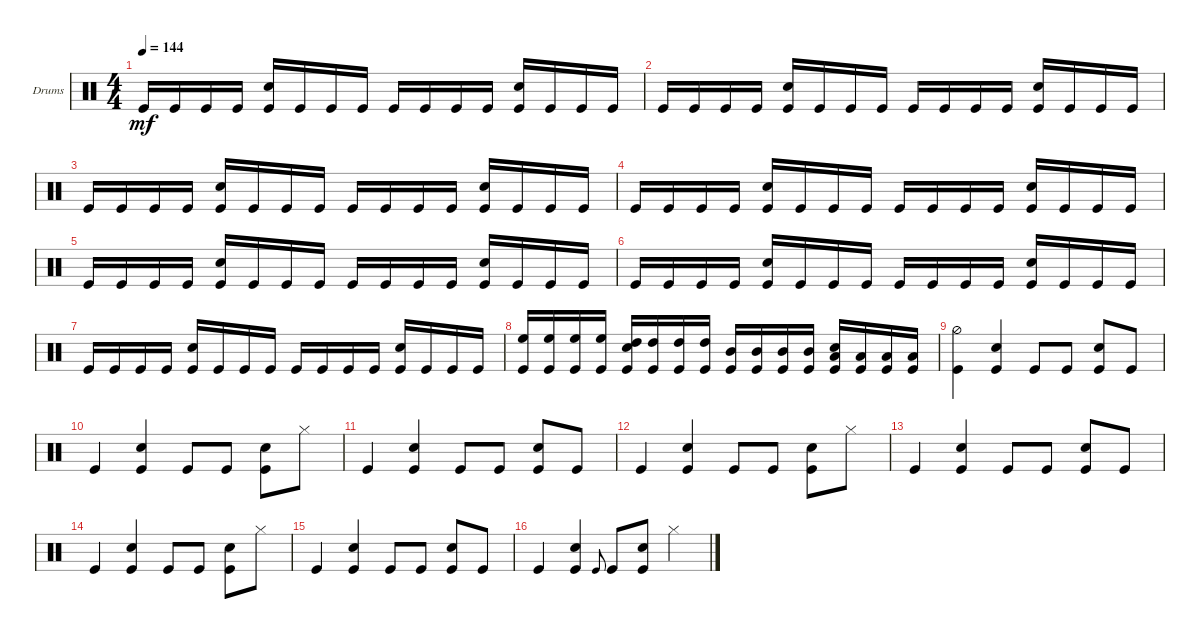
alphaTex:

\bracketExtendMode groupsimilarinstruments
\firstSystemTrackNameOrientation horizontal
\otherSystemsTrackNameOrientation horizontal
\track ("Drums" "Drums") {instrument percussion}
\staff {score}
\articulation defaults
\ts (4 4)
\tempo 144
\clef neutral
\ks c "Kick (hit)".16{dy mf} "Kick (hit)".16 "Kick (hit)".16 "Kick (hit)".16
("Kick (hit)" "Snare (hit) 2").16 "Kick (hit)".16 "Kick (hit)".16 "Kick (hit)".16 "Kick (hit)".16 "Kick (hit)".16 "Kick (hit)".16 "Kick (hit)".16 ("Kick (hit)" "Snare (hit) 2").16 "Kick (hit)".16 "Kick (hit)".16 "Kick (hit)".16 |
"Kick (hit)".16 "Kick (hit)".16 "Kick (hit)".16 "Kick (hit)".16 ("Kick (hit)" "Snare (hit) 2").16 "Kick (hit)".16 "Kick (hit)".16 "Kick (hit)".16 "Kick (hit)".16 "Kick (hit)".16 "Kick (hit)".16 "Kick (hit)".16 ("Kick (hit)" "Snare (hit) 2").16 "Kick (hit)".16 "Kick (hit)".16 "Kick (hit)".16 |
"Kick (hit)".16 "Kick (hit)".16 "Kick (hit)".16 "Kick (hit)".16 ("Kick (hit)" "Snare (hit) 2").16 "Kick (hit)".16 "Kick (hit)".16 "Kick (hit)".16 "Kick (hit)".16 "Kick (hit)".16 "Kick (hit)".16 "Kick (hit)".16 ("Kick (hit)" "Snare (hit) 2").16 "Kick (hit)".16 "Kick (hit)".16 "Kick (hit)".16 |
"Kick (hit)".16 "Kick (hit)".16 "Kick (hit)".16 "Kick (hit)".16 ("Kick (hit)" "Snare (hit) 2").16 "Kick (hit)".16 "Kick (hit)".16 "Kick (hit)".16 "Kick (hit)".16 "Kick (hit)".16 "Kick (hit)".16 "Kick (hit)".16 ("Kick (hit)" "Snare (hit) 2").16 "Kick (hit)".16 "Kick (hit)".16 "Kick (hit)".16 |
"Kick (hit)".16 "Kick (hit)".16 "Kick (hit)".16 "Kick (hit)".16 ("Kick (hit)" "Snare (hit) 2").16 "Kick (hit)".16 "Kick (hit)".16 "Kick (hit)".16 "Kick (hit)".16 "Kick (hit)".16 "Kick (hit)".16 "Kick (hit)".16 ("Kick (hit)" "Snare (hit) 2").16 "Kick (hit)".16 "Kick (hit)".16 "Kick (hit)".16 |
"Kick (hit)".16 "Kick (hit)".16 "Kick (hit)".16 "Kick (hit)".16 ("Kick (hit)" "Snare (hit) 2").16 "Kick (hit)".16 "Kick (hit)".16 "Kick (hit)".16 "Kick (hit)".16 "Kick (hit)".16 "Kick (hit)".16 "Kick (hit)".16 ("Kick (hit)" "Snare (hit) 2").16 "Kick (hit)".16 "Kick (hit)".16 "Kick (hit)".16 |
"Kick (hit)".16 "Kick (hit)".16 "Kick (hit)".16 "Kick (hit)".16 ("Kick (hit)" "Snare (hit) 2").16 "Kick (hit)".16 "Kick (hit)".16 "Kick (hit)".16 "Kick (hit)".16 "Kick (hit)".16 "Kick (hit)".16 "Kick (hit)".16 ("Kick (hit)" "Snare (hit) 2").16 "Kick (hit)".16 "Kick (hit)".16 "Kick (hit)".16 |
("Kick (hit)" "High Floor Tom (hit)").16 ("Kick (hit)" "High Floor Tom (hit)").16 ("Kick (hit)" "High Floor Tom (hit)").16 ("Kick (hit)" "High Floor Tom (hit)").16 ("Kick (hit)" "Snare (hit) 2" "High Tom (hit)").16 ("Kick (hit)" "High Tom (hit)").16 ("Kick (hit)" "High Tom (hit)").16 ("Kick (hit)" "High Tom (hit)").16 ("Kick (hit)" "Mid Tom (hit)").16 ("Kick (hit)" "Mid Tom (hit)").16 ("Kick (hit)" "Mid Tom (hit)").16 ("Kick (hit)" "Mid Tom (hit)").16 ("Kick (hit)" "Snare (hit) 2" "Low Tom (hit)").16 ("Kick (hit)" "Low Tom (hit)").16 ("Kick (hit)" "Low Tom (hit)").16 ("Kick (hit)" "Low Tom (hit)").16 |
("Kick (hit)" "Hi-Hat (half)").4 ("Kick (hit)" "Snare (hit) 2").4 "Kick (hit)".8 "Kick (hit)".8 ("Kick (hit)" "Snare (hit) 2").8 "Kick (hit)".8 |
"Kick (hit)".4 ("Kick (hit)" "Snare (hit) 2").4 "Kick (hit)".8 "Kick (hit)".8 ("Kick (hit)" "Snare (hit) 2").8 "Hi-Hat (closed)".8 |
"Kick (hit)".4 ("Kick (hit)" "Snare (hit) 2").4 "Kick (hit)".8 "Kick (hit)".8 ("Kick (hit)" "Snare (hit) 2").8 "Kick (hit)".8 |
"Kick (hit)".4 ("Kick (hit)" "Snare (hit) 2").4 "Kick (hit)".8 "Kick (hit)".8 ("Kick (hit)" "Snare (hit) 2").8 "Hi-Hat (closed)".8 |
"Kick (hit)".4 ("Kick (hit)" "Snare (hit) 2").4 "Kick (hit)".8 "Kick (hit)".8 ("Kick (hit)" "Snare (hit) 2").8 "Kick (hit)".8 |
"Kick (hit)".4 ("Kick (hit)" "Snare (hit) 2").4 "Kick (hit)".8 "Kick (hit)".8 ("Kick (hit)" "Snare (hit) 2").8 "Hi-Hat (closed)".8 |
"Kick (hit)".4 ("Kick (hit)" "Snare (hit) 2").4 "Kick (hit)".8 "Kick (hit)".8 ("Kick (hit)" "Snare (hit) 2").8 "Kick (hit)".8 |
"Kick (hit)".4 ("Kick (hit)" "Snare (hit) 2").4 "Kick (hit)".8{gr onbeat} "Kick (hit)".8 ("Kick (hit)" "Snare (hit) 2").8 "Hi-Hat (closed)".4
